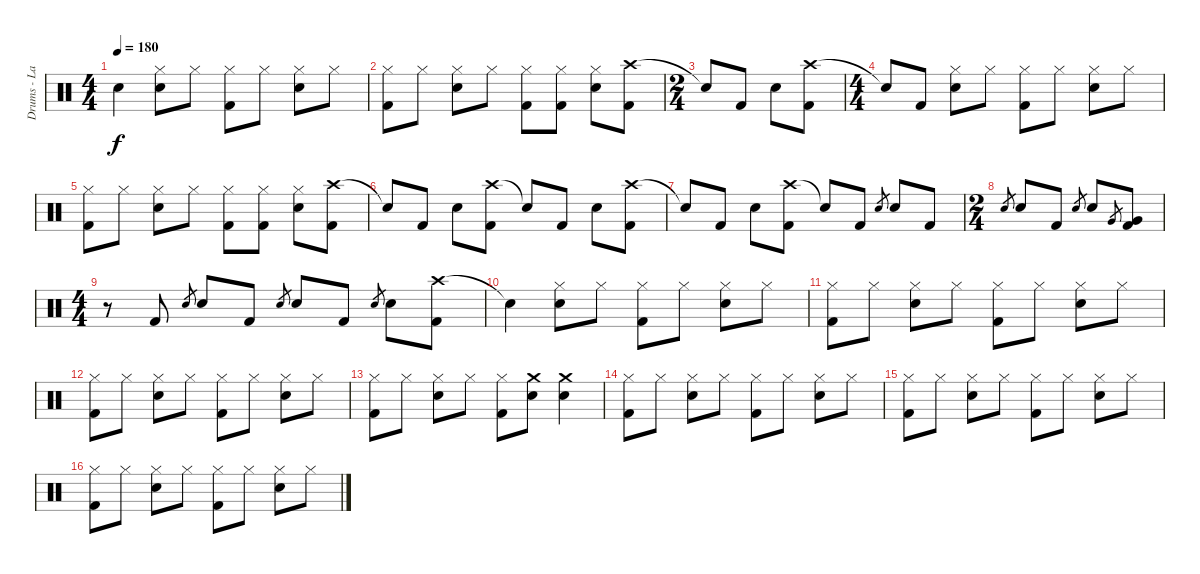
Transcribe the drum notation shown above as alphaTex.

\track ("Drums - Lars" "Drums - La") {instrument percussion}
\staff {score}
\articulation defaults
\ts (4 4)
\tempo 180
\clef neutral
\ks c "Snare (hit)"{t}.4{dy f}
("Hi-Hat (closed)" "Snare (hit) 2").8 "Hi-Hat (closed)".8 ("Hi-Hat (closed)" "Kick (hit) 2").8 "Hi-Hat (closed)".8 ("Hi-Hat (closed)" "Snare (hit) 2").8 "Hi-Hat (closed)".8 |
("Hi-Hat (closed)" "Kick (hit) 2").8 "Hi-Hat (closed)".8 ("Hi-Hat (closed)" "Snare (hit) 2").8 "Hi-Hat (closed)".8 ("Hi-Hat (closed)" "Kick (hit) 2").8 ("Hi-Hat (closed)" "Kick (hit) 2").8 ("Hi-Hat (closed)" "Snare (hit) 2").8 ("Crash high (hit)" "Kick (hit) 2").8 |
\ts (2 4)
"Snare (hit)"{t}.8 "Kick (hit) 2".8 "Snare (hit) 2".8 ("Crash high (hit)" "Kick (hit) 2").8 |
\ts (4 4)
"Snare (hit)"{t}.8 "Kick (hit) 2".8 ("Hi-Hat (closed)" "Snare (hit) 2").8 "Hi-Hat (closed)".8 ("Hi-Hat (closed)" "Kick (hit) 2").8 "Hi-Hat (closed)".8 ("Hi-Hat (closed)" "Snare (hit) 2").8 "Hi-Hat (closed)".8 |
("Hi-Hat (closed)" "Kick (hit) 2").8 "Hi-Hat (closed)".8 ("Hi-Hat (closed)" "Snare (hit) 2").8 "Hi-Hat (closed)".8 ("Hi-Hat (closed)" "Kick (hit) 2").8 ("Hi-Hat (closed)" "Kick (hit) 2").8 ("Hi-Hat (closed)" "Snare (hit) 2").8 ("Crash high (hit)" "Kick (hit) 2").8 |
"Snare (hit)"{t}.8 "Kick (hit) 2".8 "Snare (hit) 2".8 ("Crash high (hit)" "Kick (hit) 2").8 "Snare (hit)"{t}.8 "Kick (hit) 2".8 "Snare (hit) 2".8 ("Crash high (hit)" "Kick (hit) 2").8 |
"Snare (hit)"{t}.8 "Kick (hit) 2".8 "Snare (hit) 2".8 ("Crash high (hit)" "Kick (hit) 2").8 "Snare (hit)"{t}.8 "Kick (hit) 2".8 "Snare (hit) 2".8{gr} "Snare (hit) 2".8 "Kick (hit) 2".8 |
\ts (2 4)
"Snare (hit) 2".8{gr} "Snare (hit) 2".8 "Kick (hit) 2".8 "Snare (hit) 2".8{gr} "Snare (hit) 2".8 "Very Low Tom (hit)".8{gr} ("Very Low Tom (hit)" "Kick (hit) 2").8 |
\ts (4 4)
r.8 "Kick (hit) 2".8 "Snare (hit) 2".8{gr} "Snare (hit) 2".8 "Kick (hit) 2".8 "Snare (hit) 2".8{gr} "Snare (hit) 2".8 "Kick (hit) 2".8 "Snare (hit) 2".8{gr} "Snare (hit) 2".8 ("Crash high (hit)" "Kick (hit) 2").8 |
"Snare (hit)"{t}.4 ("Hi-Hat (closed)" "Snare (hit) 2").8 "Hi-Hat (closed)".8 ("Hi-Hat (closed)" "Kick (hit) 2").8 "Hi-Hat (closed)".8 ("Hi-Hat (closed)" "Snare (hit) 2").8 "Hi-Hat (closed)".8 |
("Hi-Hat (closed)" "Kick (hit) 2").8 "Hi-Hat (closed)".8 ("Hi-Hat (closed)" "Snare (hit) 2").8 "Hi-Hat (closed)".8 ("Hi-Hat (closed)" "Kick (hit) 2").8 "Hi-Hat (closed)".8 ("Hi-Hat (closed)" "Snare (hit) 2").8 "Hi-Hat (closed)".8 |
("Hi-Hat (closed)" "Kick (hit) 2").8 "Hi-Hat (closed)".8 ("Hi-Hat (closed)" "Snare (hit) 2").8 "Hi-Hat (closed)".8 ("Hi-Hat (closed)" "Kick (hit) 2").8 "Hi-Hat (closed)".8 ("Hi-Hat (closed)" "Snare (hit) 2").8 "Hi-Hat (closed)".8 |
("Hi-Hat (closed)" "Kick (hit) 2").8 "Hi-Hat (closed)".8 ("Hi-Hat (closed)" "Snare (hit) 2").8 "Hi-Hat (closed)".8 ("Hi-Hat (closed)" "Kick (hit) 2").8 ("Crash medium (hit)" "Snare (hit) 2").8 ("Crash medium (hit)" "Snare (hit) 2").4 |
("Hi-Hat (closed)" "Kick (hit) 2").8 "Hi-Hat (closed)".8 ("Hi-Hat (closed)" "Snare (hit) 2").8 "Hi-Hat (closed)".8 ("Hi-Hat (closed)" "Kick (hit) 2").8 "Hi-Hat (closed)".8 ("Hi-Hat (closed)" "Snare (hit) 2").8 "Hi-Hat (closed)".8 |
("Hi-Hat (closed)" "Kick (hit) 2").8 "Hi-Hat (closed)".8 ("Hi-Hat (closed)" "Snare (hit) 2").8 "Hi-Hat (closed)".8 ("Hi-Hat (closed)" "Kick (hit) 2").8 "Hi-Hat (closed)".8 ("Hi-Hat (closed)" "Snare (hit) 2").8 "Hi-Hat (closed)".8 |
("Hi-Hat (closed)" "Kick (hit) 2").8 "Hi-Hat (closed)".8 ("Hi-Hat (closed)" "Snare (hit) 2").8 "Hi-Hat (closed)".8 ("Hi-Hat (closed)" "Kick (hit) 2").8 "Hi-Hat (closed)".8 ("Hi-Hat (closed)" "Snare (hit) 2").8 "Hi-Hat (closed)".8
